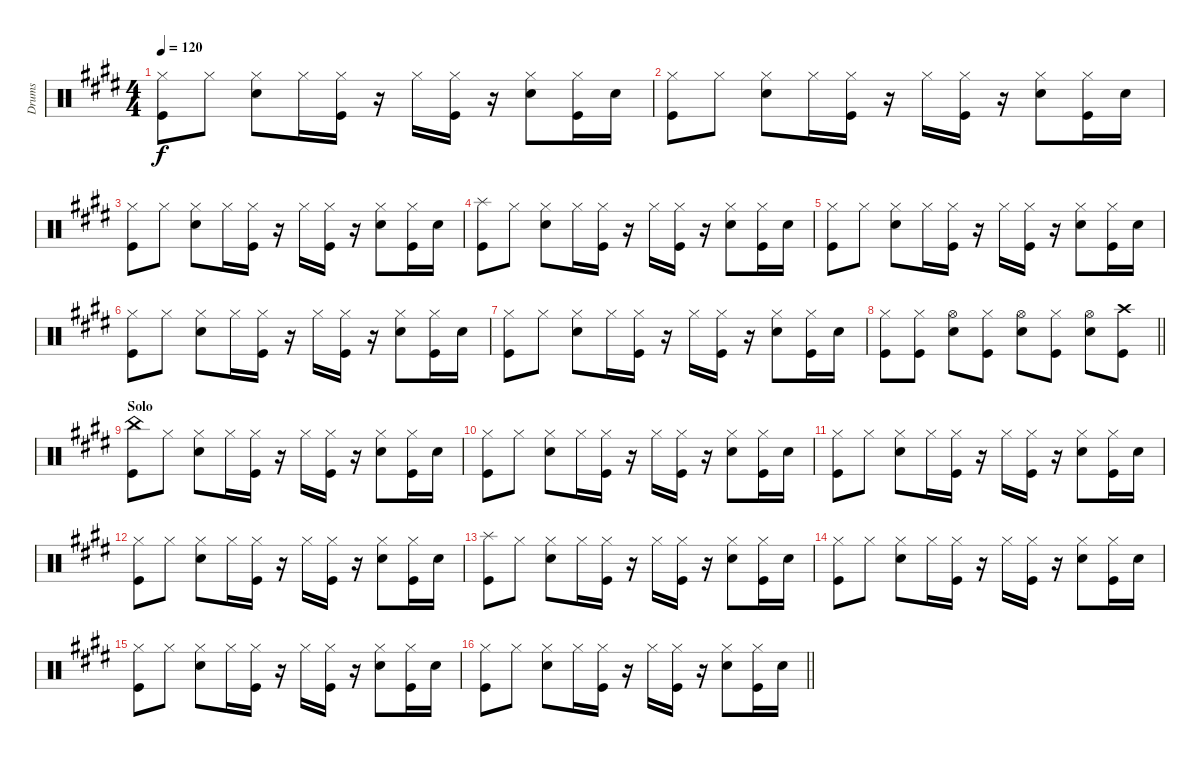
\track ("Drums" "Drums") {instrument percussion}
\staff {score}
\articulation defaults
\ts (4 4)
\tempo 120
\clef neutral
\ks c#minor
("Hi-Hat (closed)" "Kick (hit)").8{dy f} "Hi-Hat (closed)".8 ("Hi-Hat (closed)" "Snare (hit) 2").8 "Hi-Hat (closed)".16 ("Hi-Hat (closed)" "Kick (hit)").16 r.16 "Hi-Hat (closed)".16 ("Hi-Hat (closed)" "Kick (hit)").16 r.16 ("Hi-Hat (closed)" "Snare (hit) 2").8 ("Hi-Hat (closed)" "Kick (hit)").16 "Snare (hit) 2".16 |
\ks e
("Hi-Hat (closed)" "Kick (hit)").8 "Hi-Hat (closed)".8 ("Hi-Hat (closed)" "Snare (hit) 2").8 "Hi-Hat (closed)".16 ("Hi-Hat (closed)" "Kick (hit)").16 r.16 "Hi-Hat (closed)".16 ("Hi-Hat (closed)" "Kick (hit)").16 r.16 ("Hi-Hat (closed)" "Snare (hit) 2").8 ("Hi-Hat (closed)" "Kick (hit)").16 "Snare (hit) 2".16 |
\ks c#minor
("Hi-Hat (closed)" "Kick (hit)").8 "Hi-Hat (closed)".8 ("Hi-Hat (closed)" "Snare (hit) 2").8 "Hi-Hat (closed)".16 ("Hi-Hat (closed)" "Kick (hit)").16 r.16 "Hi-Hat (closed)".16 ("Hi-Hat (closed)" "Kick (hit)").16 r.16 ("Hi-Hat (closed)" "Snare (hit) 2").8 ("Hi-Hat (closed)" "Kick (hit)").16 "Snare (hit) 2".16 |
\ks e
("Splash (hit)" "Kick (hit)").8 "Hi-Hat (closed)".8 ("Hi-Hat (closed)" "Snare (hit) 2").8 "Hi-Hat (closed)".16 ("Hi-Hat (closed)" "Kick (hit)").16 r.16 "Hi-Hat (closed)".16 ("Hi-Hat (closed)" "Kick (hit)").16 r.16 ("Hi-Hat (closed)" "Snare (hit) 2").8 ("Hi-Hat (closed)" "Kick (hit)").16 "Snare (hit) 2".16 |
\ks c#minor
("Hi-Hat (closed)" "Kick (hit)").8 "Hi-Hat (closed)".8 ("Hi-Hat (closed)" "Snare (hit) 2").8 "Hi-Hat (closed)".16 ("Hi-Hat (closed)" "Kick (hit)").16 r.16 "Hi-Hat (closed)".16 ("Hi-Hat (closed)" "Kick (hit)").16 r.16 ("Hi-Hat (closed)" "Snare (hit) 2").8 ("Hi-Hat (closed)" "Kick (hit)").16 "Snare (hit) 2".16 |
\ks e
("Hi-Hat (closed)" "Kick (hit)").8 "Hi-Hat (closed)".8 ("Hi-Hat (closed)" "Snare (hit) 2").8 "Hi-Hat (closed)".16 ("Hi-Hat (closed)" "Kick (hit)").16 r.16 "Hi-Hat (closed)".16 ("Hi-Hat (closed)" "Kick (hit)").16 r.16 ("Hi-Hat (closed)" "Snare (hit) 2").8 ("Hi-Hat (closed)" "Kick (hit)").16 "Snare (hit) 2".16 |
\ks c#minor
("Hi-Hat (closed)" "Kick (hit)").8 "Hi-Hat (closed)".8 ("Hi-Hat (closed)" "Snare (hit) 2").8 "Hi-Hat (closed)".16 ("Hi-Hat (closed)" "Kick (hit)").16 r.16 "Hi-Hat (closed)".16 ("Hi-Hat (closed)" "Kick (hit)").16 r.16 ("Hi-Hat (closed)" "Snare (hit) 2").8 ("Hi-Hat (closed)" "Kick (hit)").16 "Snare (hit) 2".16 |
\barLineRight lightlight
("Hi-Hat (closed)" "Kick (hit)").8 ("Hi-Hat (closed)" "Kick (hit)").8 ("Hi-Hat (open)" "Snare (hit) 2").8 ("Hi-Hat (closed)" "Kick (hit)").8 ("Hi-Hat (open)" "Snare (hit) 2").8 ("Hi-Hat (closed)" "Kick (hit)").8 ("Hi-Hat (open)" "Snare (hit) 2").8 ("Crash high (hit)" "Kick (hit)").8 |
\section ("" "Solo")
("China (hit)" "Kick (hit)").8 "Hi-Hat (closed)".8 ("Hi-Hat (closed)" "Snare (hit) 2").8 "Hi-Hat (closed)".16 ("Hi-Hat (closed)" "Kick (hit)").16 r.16 "Hi-Hat (closed)".16 ("Hi-Hat (closed)" "Kick (hit)").16 r.16 ("Hi-Hat (closed)" "Snare (hit) 2").8 ("Hi-Hat (closed)" "Kick (hit)").16 "Snare (hit) 2".16 |
("Hi-Hat (closed)" "Kick (hit)").8 "Hi-Hat (closed)".8 ("Hi-Hat (closed)" "Snare (hit) 2").8 "Hi-Hat (closed)".16 ("Hi-Hat (closed)" "Kick (hit)").16 r.16 "Hi-Hat (closed)".16 ("Hi-Hat (closed)" "Kick (hit)").16 r.16 ("Hi-Hat (closed)" "Snare (hit) 2").8 ("Hi-Hat (closed)" "Kick (hit)").16 "Snare (hit) 2".16 |
\ks e
("Hi-Hat (closed)" "Kick (hit)").8 "Hi-Hat (closed)".8 ("Hi-Hat (closed)" "Snare (hit) 2").8 "Hi-Hat (closed)".16 ("Hi-Hat (closed)" "Kick (hit)").16 r.16 "Hi-Hat (closed)".16 ("Hi-Hat (closed)" "Kick (hit)").16 r.16 ("Hi-Hat (closed)" "Snare (hit) 2").8 ("Hi-Hat (closed)" "Kick (hit)").16 "Snare (hit) 2".16 |
\ks c#minor
("Hi-Hat (closed)" "Kick (hit)").8 "Hi-Hat (closed)".8 ("Hi-Hat (closed)" "Snare (hit) 2").8 "Hi-Hat (closed)".16 ("Hi-Hat (closed)" "Kick (hit)").16 r.16 "Hi-Hat (closed)".16 ("Hi-Hat (closed)" "Kick (hit)").16 r.16 ("Hi-Hat (closed)" "Snare (hit) 2").8 ("Hi-Hat (closed)" "Kick (hit)").16 "Snare (hit) 2".16 |
("Splash (hit)" "Kick (hit)").8 "Hi-Hat (closed)".8 ("Hi-Hat (closed)" "Snare (hit) 2").8 "Hi-Hat (closed)".16 ("Hi-Hat (closed)" "Kick (hit)").16 r.16 "Hi-Hat (closed)".16 ("Hi-Hat (closed)" "Kick (hit)").16 r.16 ("Hi-Hat (closed)" "Snare (hit) 2").8 ("Hi-Hat (closed)" "Kick (hit)").16 "Snare (hit) 2".16 |
("Hi-Hat (closed)" "Kick (hit)").8 "Hi-Hat (closed)".8 ("Hi-Hat (closed)" "Snare (hit) 2").8 "Hi-Hat (closed)".16 ("Hi-Hat (closed)" "Kick (hit)").16 r.16 "Hi-Hat (closed)".16 ("Hi-Hat (closed)" "Kick (hit)").16 r.16 ("Hi-Hat (closed)" "Snare (hit) 2").8 ("Hi-Hat (closed)" "Kick (hit)").16 "Snare (hit) 2".16 |
\ks e
("Hi-Hat (closed)" "Kick (hit)").8 "Hi-Hat (closed)".8 ("Hi-Hat (closed)" "Snare (hit) 2").8 "Hi-Hat (closed)".16 ("Hi-Hat (closed)" "Kick (hit)").16 r.16 "Hi-Hat (closed)".16 ("Hi-Hat (closed)" "Kick (hit)").16 r.16 ("Hi-Hat (closed)" "Snare (hit) 2").8 ("Hi-Hat (closed)" "Kick (hit)").16 "Snare (hit) 2".16 |
\barLineRight lightlight
\ks c#minor
("Hi-Hat (closed)" "Kick (hit)").8 "Hi-Hat (closed)".8 ("Hi-Hat (closed)" "Snare (hit) 2").8 "Hi-Hat (closed)".16 ("Hi-Hat (closed)" "Kick (hit)").16 r.16 "Hi-Hat (closed)".16 ("Hi-Hat (closed)" "Kick (hit)").16 r.16 ("Hi-Hat (closed)" "Snare (hit) 2").8 ("Hi-Hat (closed)" "Kick (hit)").16 "Snare (hit) 2".16
